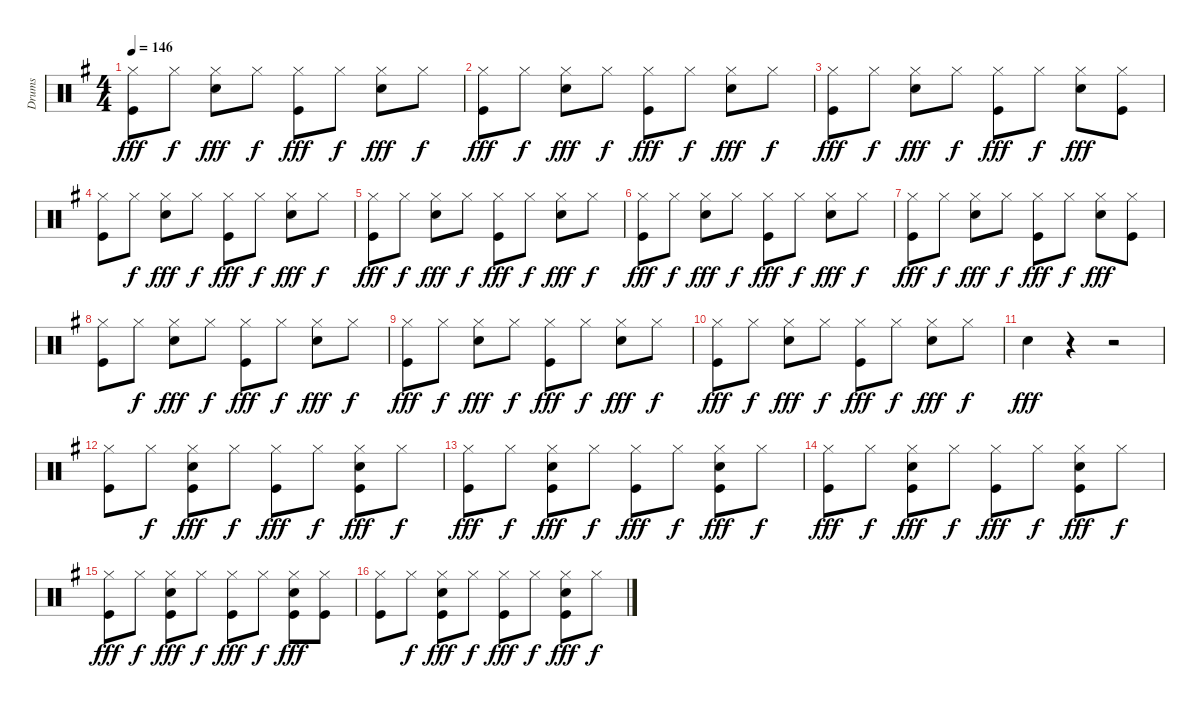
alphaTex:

\track ("Drums" "Drums") {instrument percussion}
\staff {score}
\articulation defaults
\ts (4 4)
\tempo 146
\clef neutral
\ks g
("Hi-Hat (closed)" "Kick (hit)").8{dy fff} "Hi-Hat (closed)".8{dy f} ("Hi-Hat (closed)" "Snare (hit) 2").8{dy fff} "Hi-Hat (closed)".8{dy f} ("Hi-Hat (closed)" "Kick (hit)").8{dy fff} "Hi-Hat (closed)".8{dy f} ("Hi-Hat (closed)" "Snare (hit) 2").8{dy fff} "Hi-Hat (closed)".8{dy f} |
("Hi-Hat (closed)" "Kick (hit)").8{dy fff} "Hi-Hat (closed)".8{dy f} ("Hi-Hat (closed)" "Snare (hit) 2").8{dy fff} "Hi-Hat (closed)".8{dy f} ("Hi-Hat (closed)" "Kick (hit)").8{dy fff} "Hi-Hat (closed)".8{dy f} ("Hi-Hat (closed)" "Snare (hit) 2").8{dy fff} "Hi-Hat (closed)".8{dy f} |
("Hi-Hat (closed)" "Kick (hit)").8{dy fff} "Hi-Hat (closed)".8{dy f} ("Hi-Hat (closed)" "Snare (hit) 2").8{dy fff} "Hi-Hat (closed)".8{dy f} ("Hi-Hat (closed)" "Kick (hit)").8{dy fff} "Hi-Hat (closed)".8{dy f} ("Hi-Hat (closed)" "Snare (hit) 2").8{dy fff} ("Hi-Hat (closed)" "Kick (hit)").8 |
("Hi-Hat (closed)" "Kick (hit)").8 "Hi-Hat (closed)".8{dy f} ("Hi-Hat (closed)" "Snare (hit) 2").8{dy fff} "Hi-Hat (closed)".8{dy f} ("Hi-Hat (closed)" "Kick (hit)").8{dy fff} "Hi-Hat (closed)".8{dy f} ("Hi-Hat (closed)" "Snare (hit) 2").8{dy fff} "Hi-Hat (closed)".8{dy f} |
("Hi-Hat (closed)" "Kick (hit)").8{dy fff} "Hi-Hat (closed)".8{dy f} ("Hi-Hat (closed)" "Snare (hit) 2").8{dy fff} "Hi-Hat (closed)".8{dy f} ("Hi-Hat (closed)" "Kick (hit)").8{dy fff} "Hi-Hat (closed)".8{dy f} ("Hi-Hat (closed)" "Snare (hit) 2").8{dy fff} "Hi-Hat (closed)".8{dy f} |
("Hi-Hat (closed)" "Kick (hit)").8{dy fff} "Hi-Hat (closed)".8{dy f} ("Hi-Hat (closed)" "Snare (hit) 2").8{dy fff} "Hi-Hat (closed)".8{dy f} ("Hi-Hat (closed)" "Kick (hit)").8{dy fff} "Hi-Hat (closed)".8{dy f} ("Hi-Hat (closed)" "Snare (hit) 2").8{dy fff} "Hi-Hat (closed)".8{dy f} |
("Hi-Hat (closed)" "Kick (hit)").8{dy fff} "Hi-Hat (closed)".8{dy f} ("Hi-Hat (closed)" "Snare (hit) 2").8{dy fff} "Hi-Hat (closed)".8{dy f} ("Hi-Hat (closed)" "Kick (hit)").8{dy fff} "Hi-Hat (closed)".8{dy f} ("Hi-Hat (closed)" "Snare (hit) 2").8{dy fff} ("Hi-Hat (closed)" "Kick (hit)").8 |
("Hi-Hat (closed)" "Kick (hit)").8 "Hi-Hat (closed)".8{dy f} ("Hi-Hat (closed)" "Snare (hit) 2").8{dy fff} "Hi-Hat (closed)".8{dy f} ("Hi-Hat (closed)" "Kick (hit)").8{dy fff} "Hi-Hat (closed)".8{dy f} ("Hi-Hat (closed)" "Snare (hit) 2").8{dy fff} "Hi-Hat (closed)".8{dy f} |
("Hi-Hat (closed)" "Kick (hit)").8{dy fff} "Hi-Hat (closed)".8{dy f} ("Hi-Hat (closed)" "Snare (hit) 2").8{dy fff} "Hi-Hat (closed)".8{dy f} ("Hi-Hat (closed)" "Kick (hit)").8{dy fff} "Hi-Hat (closed)".8{dy f} ("Hi-Hat (closed)" "Snare (hit) 2").8{dy fff} "Hi-Hat (closed)".8{dy f} |
("Hi-Hat (closed)" "Kick (hit)").8{dy fff} "Hi-Hat (closed)".8{dy f} ("Hi-Hat (closed)" "Snare (hit) 2").8{dy fff} "Hi-Hat (closed)".8{dy f} ("Hi-Hat (closed)" "Kick (hit)").8{dy fff} "Hi-Hat (closed)".8{dy f} ("Hi-Hat (closed)" "Snare (hit) 2").8{dy fff} "Hi-Hat (closed)".8{dy f} |
"Snare (hit) 2".4{dy fff} r.4 r.2 |
("Hi-Hat (closed)" "Kick (hit)").8 "Hi-Hat (closed)".8{dy f} ("Hi-Hat (closed)" "Snare (hit) 2" "Kick (hit)").8{dy fff} "Hi-Hat (closed)".8{dy f} ("Hi-Hat (closed)" "Kick (hit)").8{dy fff} "Hi-Hat (closed)".8{dy f} ("Hi-Hat (closed)" "Snare (hit) 2" "Kick (hit)").8{dy fff} "Hi-Hat (closed)".8{dy f} |
("Hi-Hat (closed)" "Kick (hit)").8{dy fff} "Hi-Hat (closed)".8{dy f} ("Hi-Hat (closed)" "Snare (hit) 2" "Kick (hit)").8{dy fff} "Hi-Hat (closed)".8{dy f} ("Hi-Hat (closed)" "Kick (hit)").8{dy fff} "Hi-Hat (closed)".8{dy f} ("Hi-Hat (closed)" "Snare (hit) 2" "Kick (hit)").8{dy fff} "Hi-Hat (closed)".8{dy f} |
("Hi-Hat (closed)" "Kick (hit)").8{dy fff} "Hi-Hat (closed)".8{dy f} ("Hi-Hat (closed)" "Snare (hit) 2" "Kick (hit)").8{dy fff} "Hi-Hat (closed)".8{dy f} ("Hi-Hat (closed)" "Kick (hit)").8{dy fff} "Hi-Hat (closed)".8{dy f} ("Hi-Hat (closed)" "Snare (hit) 2" "Kick (hit)").8{dy fff} "Hi-Hat (closed)".8{dy f} |
("Hi-Hat (closed)" "Kick (hit)").8{dy fff} "Hi-Hat (closed)".8{dy f} ("Hi-Hat (closed)" "Snare (hit) 2" "Kick (hit)").8{dy fff} "Hi-Hat (closed)".8{dy f} ("Hi-Hat (closed)" "Kick (hit)").8{dy fff} "Hi-Hat (closed)".8{dy f} ("Hi-Hat (closed)" "Snare (hit) 2" "Kick (hit)").8{dy fff} ("Hi-Hat (closed)" "Kick (hit)").8 |
("Hi-Hat (closed)" "Kick (hit)").8 "Hi-Hat (closed)".8{dy f} ("Hi-Hat (closed)" "Snare (hit) 2" "Kick (hit)").8{dy fff} "Hi-Hat (closed)".8{dy f} ("Hi-Hat (closed)" "Kick (hit)").8{dy fff} "Hi-Hat (closed)".8{dy f} ("Hi-Hat (closed)" "Snare (hit) 2" "Kick (hit)").8{dy fff} "Hi-Hat (closed)".8{dy f}
